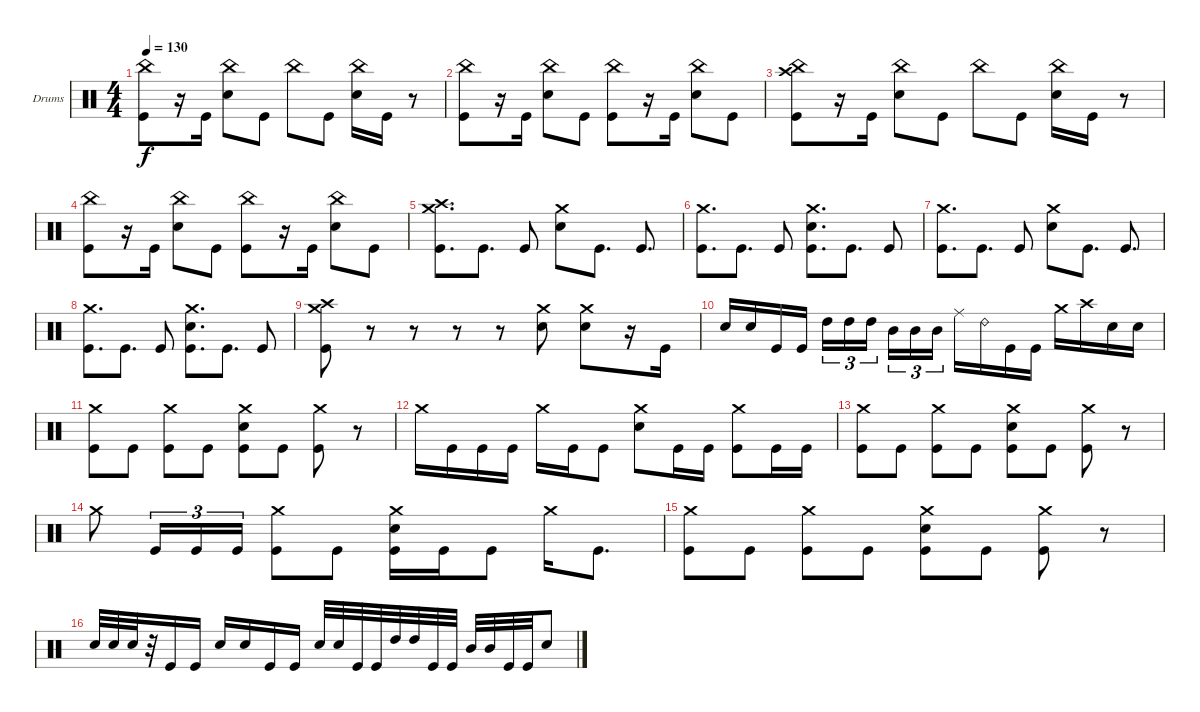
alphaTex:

\bracketExtendMode groupsimilarinstruments
\firstSystemTrackNameOrientation horizontal
\otherSystemsTrackNameOrientation horizontal
\track ("Boum Boum" "Drums") {instrument percussion}
\staff {score}
\articulation defaults
\ts (4 4)
\tempo 130
\clef neutral
\ks c
("China (hit)" "Kick (hit)").8{dy f} r.16 "Kick (hit)".16 ("Snare (hit) 2" "China (hit)").8 "Kick (hit)".8 "China (hit)".8 "Kick (hit)".8 ("Snare (hit) 2" "China (hit)").16 "Kick (hit)".16 r.8 |
("Kick (hit)" "China (hit)").8 r.16 "Kick (hit)".16 ("Snare (hit) 2" "China (hit)").8 "Kick (hit)".8 ("Kick (hit)" "China (hit)").8 r.16 "Kick (hit)".16 ("Snare (hit) 2" "China (hit)").8 "Kick (hit)".8 |
("China (hit)" "Kick (hit)" "Crash high (hit)").8 r.16 "Kick (hit)".16 ("Snare (hit) 2" "China (hit)").8 "Kick (hit)".8 "China (hit)".8 "Kick (hit)".8 ("Snare (hit) 2" "China (hit)").16 "Kick (hit)".16 r.8 |
("Kick (hit)" "China (hit)").8 r.16 "Kick (hit)".16 ("Snare (hit) 2" "China (hit)").8 "Kick (hit)".8 ("Kick (hit)" "China (hit)").8 r.16 "Kick (hit)".16 ("Snare (hit) 2" "China (hit)").8 "Kick (hit)".8 |
("Kick (hit)" "Crash medium (hit)" "Crash high (hit)").8{d} "Kick (hit)".8{d} "Kick (hit)".8 ("Crash medium (hit)" "Snare (hit) 2").8 "Kick (hit)".8{d} "Kick (hit)".8{d} |
("Kick (hit)" "Crash medium (hit)").8{d} "Kick (hit)".8{d} "Kick (hit)".8 ("Crash medium (hit)" "Snare (hit) 2" "Kick (hit)").8{d} "Kick (hit)".8{d} "Kick (hit)".8 |
("Kick (hit)" "Crash medium (hit)").8{d} "Kick (hit)".8{d} "Kick (hit)".8 ("Crash medium (hit)" "Snare (hit) 2").8 "Kick (hit)".8{d} "Kick (hit)".8{d} |
("Kick (hit)" "Crash medium (hit)").8{d} "Kick (hit)".8{d} "Kick (hit)".8 ("Crash medium (hit)" "Snare (hit) 2" "Kick (hit)").8{d} "Kick (hit)".8{d} "Kick (hit)".8 |
("Kick (hit)" "Crash high (hit)" "Crash medium (hit)").8 r.8 r.8 r.8 r.8 ("Snare (hit) 2" "Crash medium (hit)").8 ("Snare (hit) 2" "Crash medium (hit)").8 r.16 "Kick (hit)".16 |
"Snare (hit) 2".16 "Snare (hit) 2".16 "Kick (hit)".16 "Kick (hit)".16 "High Tom (hit)".16{tu (3 2)} "High Tom (hit)".16{tu (3 2)} "High Tom (hit)".16{tu (3 2)} "Mid Tom (hit)".16{tu (3 2)} "Mid Tom (hit)".16{tu (3 2)} "Mid Tom (hit)".16{tu (3 2)} "Ride (middle)".16 "Ride (bell) 2".16 "Kick (hit)".16 "Kick (hit)".16 "Crash medium (hit)".16 "Crash high (hit)".16 "Snare (hit) 2".16 "Snare (hit) 2".16 |
("Kick (hit)" "Crash medium (hit)").8 "Kick (hit)".8 ("Kick (hit)" "Crash medium (hit)").8 "Kick (hit)".8 ("Kick (hit)" "Snare (hit) 2" "Crash medium (hit)").8 "Kick (hit)".8 ("Kick (hit)" "Crash medium (hit)").8 r.8 |
"Crash medium (hit)".16 "Kick (hit)".16 "Kick (hit)".16 "Kick (hit)".16 "Crash medium (hit)".16 "Kick (hit)".16 "Kick (hit)".8 ("Snare (hit) 2" "Crash medium (hit)").8 "Kick (hit)".16 "Kick (hit)".16 ("Kick (hit)" "Crash medium (hit)").8 "Kick (hit)".16 "Kick (hit)".16 |
("Kick (hit)" "Crash medium (hit)").8 "Kick (hit)".8 ("Kick (hit)" "Crash medium (hit)").8 "Kick (hit)".8 ("Kick (hit)" "Crash medium (hit)" "Snare (hit) 2").8 "Kick (hit)".8 ("Kick (hit)" "Crash medium (hit)").8 r.8 |
"Crash medium (hit)".8 "Kick (hit)".16{tu (3 2)} "Kick (hit)".16{tu (3 2)} "Kick (hit)".16{tu (3 2)} ("Kick (hit)" "Crash medium (hit)").8 "Kick (hit)".8 ("Crash medium (hit)" "Snare (hit) 2" "Kick (hit)").16 "Kick (hit)".16 "Kick (hit)".8 "Crash medium (hit)".16 "Kick (hit)".8{d} |
("Crash medium (hit)" "Kick (hit)").8 "Kick (hit)".8 ("Kick (hit)" "Crash medium (hit)").8 "Kick (hit)".8 ("Kick (hit)" "Snare (hit) 2" "Crash medium (hit)").8 "Kick (hit)".8 ("Kick (hit)" "Crash medium (hit)").8 r.8 |
"Snare (hit) 2".32 "Snare (hit) 2".32 "Snare (hit) 2".32 r.32 "Kick (hit)".16 "Kick (hit)".16 "Snare (hit) 2".16 "Snare (hit) 2".16 "Kick (hit)".16 "Kick (hit)".16 "Snare (hit) 2".32 "Snare (hit) 2".32 "Kick (hit)".32 "Kick (hit)".32 "High Tom (hit)".32 "High Tom (hit)".32 "Kick (hit)".32 "Kick (hit)".32 "Mid Tom (hit)".32 "Mid Tom (hit)".32 "Kick (hit)".32 "Kick (hit)".32 "Snare (hit) 2".8
